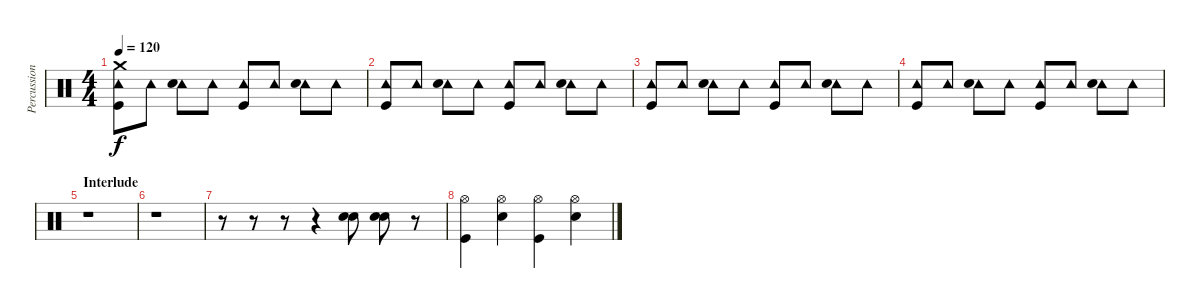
\track ("Percussion" "Percussion") {instrument percussion}
\staff {score}
\articulation defaults
\ts (4 4)
\tempo 120
\clef neutral
\ks c
("Crash medium (hit)" "Tambourine (hit)" "Kick (hit)").8{dy f} "Tambourine (hit)".8 ("Tambourine (hit)" "Electric Snare (hit)").8 "Tambourine (hit)".8 ("Tambourine (hit)" "Kick (hit)").8 "Tambourine (hit)".8 ("Tambourine (hit)" "Electric Snare (hit)").8 "Tambourine (hit)".8 |
("Tambourine (hit)" "Kick (hit)").8 "Tambourine (hit)".8 ("Tambourine (hit)" "Electric Snare (hit)").8 "Tambourine (hit)".8 ("Tambourine (hit)" "Kick (hit)").8 "Tambourine (hit)".8 ("Tambourine (hit)" "Electric Snare (hit)").8 "Tambourine (hit)".8 |
("Tambourine (hit)" "Kick (hit)").8 "Tambourine (hit)".8 ("Tambourine (hit)" "Electric Snare (hit)").8 "Tambourine (hit)".8 ("Tambourine (hit)" "Kick (hit)").8 "Tambourine (hit)".8 ("Tambourine (hit)" "Electric Snare (hit)").8 "Tambourine (hit)".8 |
("Tambourine (hit)" "Kick (hit)").8 "Tambourine (hit)".8 ("Tambourine (hit)" "Electric Snare (hit)").8 "Tambourine (hit)".8 ("Tambourine (hit)" "Kick (hit)").8 "Tambourine (hit)".8 ("Tambourine (hit)" "Electric Snare (hit)").8 "Tambourine (hit)".8 |
\section ("" "Interlude")
r.1 |
r.1 |
r.8 r.8 r.8 r.4 ("Electric Snare (hit)" "Electric Snare (hit)").8 ("Electric Snare (hit)" "Electric Snare (hit)").8 r.8 |
("Hi-Hat (open)" "Kick (hit)").4 ("Hi-Hat (open)" "Electric Snare (hit)").4 ("Hi-Hat (open)" "Kick (hit)").4 ("Hi-Hat (open)" "Electric Snare (hit)").4
